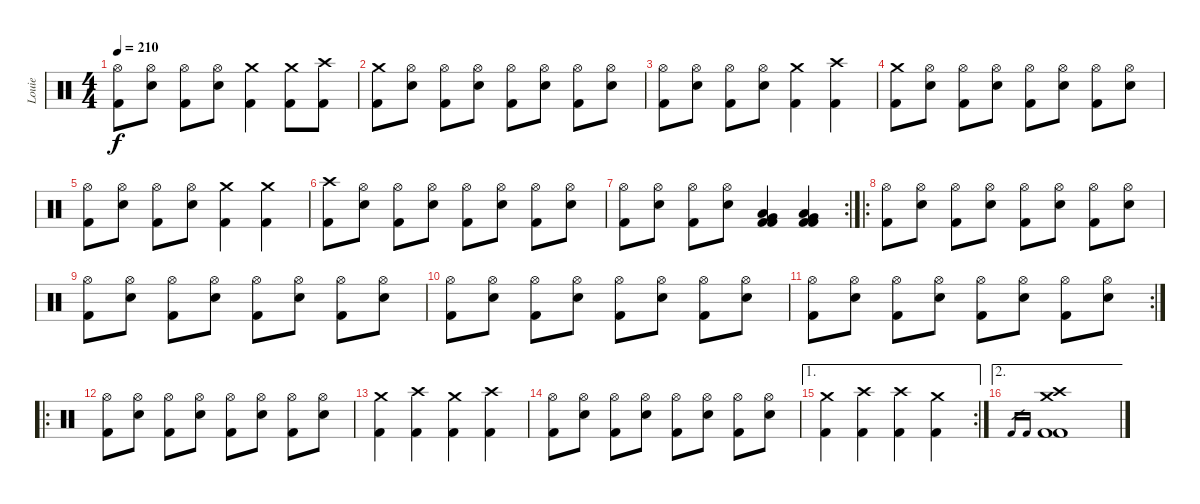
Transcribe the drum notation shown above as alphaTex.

\track ("Louie" "Louie") {instrument percussion}
\staff {score}
\articulation defaults
\ts (4 4)
\tempo 210
\clef neutral
\ks c
("Hi-Hat (open)" "Kick (hit) 2").8{dy f} ("Hi-Hat (open)" "Snare (hit) 2").8 ("Hi-Hat (open)" "Kick (hit) 2").8 ("Hi-Hat (open)" "Snare (hit) 2").8 ("Crash medium (hit)" "Kick (hit) 2").4 ("Crash medium (hit)" "Kick (hit) 2").8 ("Crash high (hit)" "Kick (hit) 2").8 |
("Crash medium (hit)" "Kick (hit) 2").8 ("Hi-Hat (open)" "Snare (hit) 2").8 ("Hi-Hat (open)" "Kick (hit) 2").8 ("Hi-Hat (open)" "Snare (hit) 2").8 ("Hi-Hat (open)" "Kick (hit) 2").8 ("Hi-Hat (open)" "Snare (hit) 2").8 ("Hi-Hat (open)" "Kick (hit) 2").8 ("Hi-Hat (open)" "Snare (hit) 2").8 |
("Hi-Hat (open)" "Kick (hit) 2").8 ("Hi-Hat (open)" "Snare (hit) 2").8 ("Hi-Hat (open)" "Kick (hit) 2").8 ("Hi-Hat (open)" "Snare (hit) 2").8 ("Crash medium (hit)" "Kick (hit) 2").4 ("Crash high (hit)" "Kick (hit) 2").4 |
("Crash medium (hit)" "Kick (hit) 2").8 ("Hi-Hat (open)" "Snare (hit) 2").8 ("Hi-Hat (open)" "Kick (hit) 2").8 ("Hi-Hat (open)" "Snare (hit) 2").8 ("Hi-Hat (open)" "Kick (hit) 2").8 ("Hi-Hat (open)" "Snare (hit) 2").8 ("Hi-Hat (open)" "Kick (hit) 2").8 ("Hi-Hat (open)" "Snare (hit) 2").8 |
("Hi-Hat (open)" "Kick (hit) 2").8 ("Hi-Hat (open)" "Snare (hit) 2").8 ("Hi-Hat (open)" "Kick (hit) 2").8 ("Hi-Hat (open)" "Snare (hit) 2").8 ("Crash medium (hit)" "Kick (hit) 2").4 ("Crash medium (hit)" "Kick (hit) 2").4 |
("Crash high (hit)" "Kick (hit) 2").8 ("Hi-Hat (open)" "Snare (hit) 2").8 ("Hi-Hat (open)" "Kick (hit) 2").8 ("Hi-Hat (open)" "Snare (hit) 2").8 ("Hi-Hat (open)" "Kick (hit) 2").8 ("Hi-Hat (open)" "Snare (hit) 2").8 ("Hi-Hat (open)" "Kick (hit) 2").8 ("Hi-Hat (open)" "Snare (hit) 2").8 |
\rc 2
("Hi-Hat (open)" "Kick (hit) 2").8 ("Hi-Hat (open)" "Snare (hit) 2").8 ("Hi-Hat (open)" "Kick (hit) 2").8 ("Hi-Hat (open)" "Snare (hit) 2").8 ("Low Tom (hit)" "Very Low Tom (hit)" "Kick (hit) 2" "Kick (hit) 2").4 ("Low Tom (hit)" "Very Low Tom (hit)" "Kick (hit) 2" "Kick (hit) 2").4 |
\ro
("Hi-Hat (open)" "Kick (hit) 2").8 ("Hi-Hat (open)" "Snare (hit) 2").8 ("Hi-Hat (open)" "Kick (hit) 2").8 ("Hi-Hat (open)" "Snare (hit) 2").8 ("Hi-Hat (open)" "Kick (hit) 2").8 ("Hi-Hat (open)" "Snare (hit) 2").8 ("Hi-Hat (open)" "Kick (hit) 2").8 ("Hi-Hat (open)" "Snare (hit) 2").8 |
("Hi-Hat (open)" "Kick (hit) 2").8 ("Hi-Hat (open)" "Snare (hit) 2").8 ("Hi-Hat (open)" "Kick (hit) 2").8 ("Hi-Hat (open)" "Snare (hit) 2").8 ("Hi-Hat (open)" "Kick (hit) 2").8 ("Hi-Hat (open)" "Snare (hit) 2").8 ("Hi-Hat (open)" "Kick (hit) 2").8 ("Hi-Hat (open)" "Snare (hit) 2").8 |
("Hi-Hat (open)" "Kick (hit) 2").8 ("Hi-Hat (open)" "Snare (hit) 2").8 ("Hi-Hat (open)" "Kick (hit) 2").8 ("Hi-Hat (open)" "Snare (hit) 2").8 ("Hi-Hat (open)" "Kick (hit) 2").8 ("Hi-Hat (open)" "Snare (hit) 2").8 ("Hi-Hat (open)" "Kick (hit) 2").8 ("Hi-Hat (open)" "Snare (hit) 2").8 |
\rc 2
("Hi-Hat (open)" "Kick (hit) 2").8 ("Hi-Hat (open)" "Snare (hit) 2").8 ("Hi-Hat (open)" "Kick (hit) 2").8 ("Hi-Hat (open)" "Snare (hit) 2").8 ("Hi-Hat (open)" "Kick (hit) 2").8 ("Hi-Hat (open)" "Snare (hit) 2").8 ("Hi-Hat (open)" "Kick (hit) 2").8 ("Hi-Hat (open)" "Snare (hit) 2").8 |
\ro
("Hi-Hat (open)" "Kick (hit) 2").8 ("Hi-Hat (open)" "Snare (hit) 2").8 ("Hi-Hat (open)" "Kick (hit) 2").8 ("Hi-Hat (open)" "Snare (hit) 2").8 ("Hi-Hat (open)" "Kick (hit) 2").8 ("Hi-Hat (open)" "Snare (hit) 2").8 ("Hi-Hat (open)" "Kick (hit) 2").8 ("Hi-Hat (open)" "Snare (hit) 2").8 |
("Crash medium (hit)" "Kick (hit) 2").4 ("Crash high (hit)" "Kick (hit) 2").4 ("Crash medium (hit)" "Kick (hit) 2").4 ("Crash high (hit)" "Kick (hit) 2").4 |
("Hi-Hat (open)" "Kick (hit) 2").8 ("Hi-Hat (open)" "Snare (hit) 2").8 ("Hi-Hat (open)" "Kick (hit) 2").8 ("Hi-Hat (open)" "Snare (hit) 2").8 ("Hi-Hat (open)" "Kick (hit) 2").8 ("Hi-Hat (open)" "Snare (hit) 2").8 ("Hi-Hat (open)" "Kick (hit) 2").8 ("Hi-Hat (open)" "Snare (hit) 2").8 |
\ae 1
\rc 2
("Crash medium (hit)" "Kick (hit) 2").4 ("Crash high (hit)" "Kick (hit) 2").4 ("Crash high (hit)" "Kick (hit) 2").4 ("Crash medium (hit)" "Kick (hit) 2").4 |
\ae 2 "Kick (hit) 2".16{gr} "Kick (hit) 2".16{gr}
("Crash medium (hit)" "Crash high (hit)" "Kick (hit) 2" "Kick (hit) 2").1
